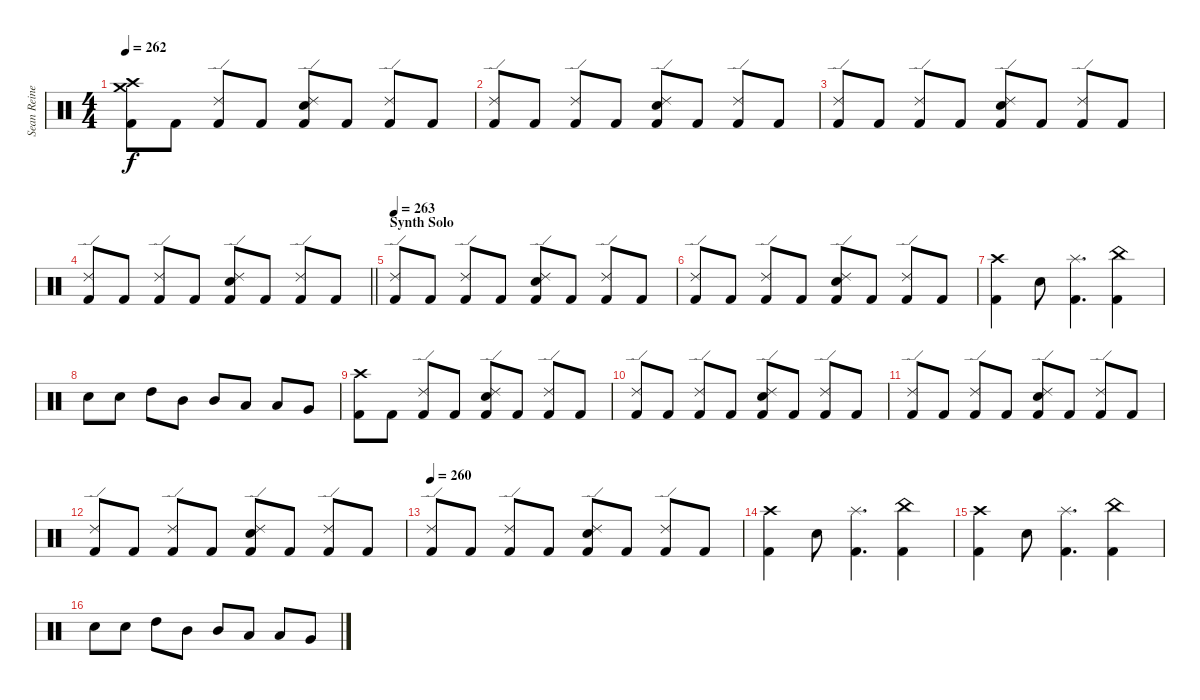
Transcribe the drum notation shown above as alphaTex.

\track ("Sean Reinert" "Sean Reine") {instrument percussion}
\staff {score}
\articulation defaults
\ts (4 4)
\tempo 262
\clef neutral
\ks c
("Crash medium (hit)" "Crash high (hit)" "Kick (hit) 2").8{dy f} "Kick (hit) 2".8 ("Ride (edge) 2" "Kick (hit) 2").8 "Kick (hit) 2".8 ("Ride (edge) 2" "Snare (hit) 2" "Kick (hit) 2").8 "Kick (hit) 2".8 ("Ride (edge) 2" "Kick (hit) 2").8 "Kick (hit) 2".8 |
("Ride (edge) 2" "Kick (hit) 2").8 "Kick (hit) 2".8 ("Ride (edge) 2" "Kick (hit) 2").8 "Kick (hit) 2".8 ("Ride (edge) 2" "Snare (hit) 2" "Kick (hit) 2").8 "Kick (hit) 2".8 ("Ride (edge) 2" "Kick (hit) 2").8 "Kick (hit) 2".8 |
("Ride (edge) 2" "Kick (hit) 2").8 "Kick (hit) 2".8 ("Ride (edge) 2" "Kick (hit) 2").8 "Kick (hit) 2".8 ("Ride (edge) 2" "Snare (hit) 2" "Kick (hit) 2").8 "Kick (hit) 2".8 ("Ride (edge) 2" "Kick (hit) 2").8 "Kick (hit) 2".8 |
\barLineRight lightlight
("Ride (edge) 2" "Kick (hit) 2").8 "Kick (hit) 2".8 ("Ride (edge) 2" "Kick (hit) 2").8 "Kick (hit) 2".8 ("Ride (edge) 2" "Snare (hit) 2" "Kick (hit) 2").8 "Kick (hit) 2".8 ("Ride (edge) 2" "Kick (hit) 2").8 "Kick (hit) 2".8 |
\section ("" "Synth Solo")
\tempo 263
("Ride (edge) 2" "Kick (hit) 2").8 "Kick (hit) 2".8 ("Ride (edge) 2" "Kick (hit) 2").8 "Kick (hit) 2".8 ("Ride (edge) 2" "Snare (hit) 2" "Kick (hit) 2").8 "Kick (hit) 2".8 ("Ride (edge) 2" "Kick (hit) 2").8 "Kick (hit) 2".8 |
("Ride (edge) 2" "Kick (hit) 2").8 "Kick (hit) 2".8 ("Ride (edge) 2" "Kick (hit) 2").8 "Kick (hit) 2".8 ("Ride (edge) 2" "Snare (hit) 2" "Kick (hit) 2").8 "Kick (hit) 2".8 ("Ride (edge) 2" "Kick (hit) 2").8 "Kick (hit) 2".8 |
("Crash high (hit)" "Kick (hit) 2").4 "Snare (hit) 2".8 ("Splash (hit)" "Kick (hit) 2").4{d} ("China (hit)" "Kick (hit) 2").4 |
"Snare (hit) 2".8 "Snare (hit) 2".8 "High Tom (hit)".8 "Mid Tom (hit)".8 "Mid Tom (hit)".8 "Low Tom (hit)".8 "Low Tom (hit)".8 "Very Low Tom (hit)".8 |
("Crash high (hit)" "Kick (hit) 2").8 "Kick (hit) 2".8 ("Ride (edge) 2" "Kick (hit) 2").8 "Kick (hit) 2".8 ("Ride (edge) 2" "Snare (hit) 2" "Kick (hit) 2").8 "Kick (hit) 2".8 ("Ride (edge) 2" "Kick (hit) 2").8 "Kick (hit) 2".8 |
("Ride (edge) 2" "Kick (hit) 2").8 "Kick (hit) 2".8 ("Ride (edge) 2" "Kick (hit) 2").8 "Kick (hit) 2".8 ("Ride (edge) 2" "Snare (hit) 2" "Kick (hit) 2").8 "Kick (hit) 2".8 ("Ride (edge) 2" "Kick (hit) 2").8 "Kick (hit) 2".8 |
("Ride (edge) 2" "Kick (hit) 2").8 "Kick (hit) 2".8 ("Ride (edge) 2" "Kick (hit) 2").8 "Kick (hit) 2".8 ("Ride (edge) 2" "Snare (hit) 2" "Kick (hit) 2").8 "Kick (hit) 2".8 ("Ride (edge) 2" "Kick (hit) 2").8 "Kick (hit) 2".8 |
("Ride (edge) 2" "Kick (hit) 2").8 "Kick (hit) 2".8 ("Ride (edge) 2" "Kick (hit) 2").8 "Kick (hit) 2".8 ("Ride (edge) 2" "Snare (hit) 2" "Kick (hit) 2").8 "Kick (hit) 2".8 ("Ride (edge) 2" "Kick (hit) 2").8 "Kick (hit) 2".8 |
\tempo 260
("Ride (edge) 2" "Kick (hit) 2").8 "Kick (hit) 2".8 ("Ride (edge) 2" "Kick (hit) 2").8 "Kick (hit) 2".8 ("Ride (edge) 2" "Snare (hit) 2" "Kick (hit) 2").8 "Kick (hit) 2".8 ("Ride (edge) 2" "Kick (hit) 2").8 "Kick (hit) 2".8 |
("Crash high (hit)" "Kick (hit) 2").4 "Snare (hit) 2".8 ("Splash (hit)" "Kick (hit) 2").4{d} ("China (hit)" "Kick (hit) 2").4 |
("Crash high (hit)" "Kick (hit) 2").4 "Snare (hit) 2".8 ("Splash (hit)" "Kick (hit) 2").4{d} ("China (hit)" "Kick (hit) 2").4 |
"Snare (hit) 2".8 "Snare (hit) 2".8 "High Tom (hit)".8 "Mid Tom (hit)".8 "Mid Tom (hit)".8 "Low Tom (hit)".8 "Low Tom (hit)".8 "Very Low Tom (hit)".8
